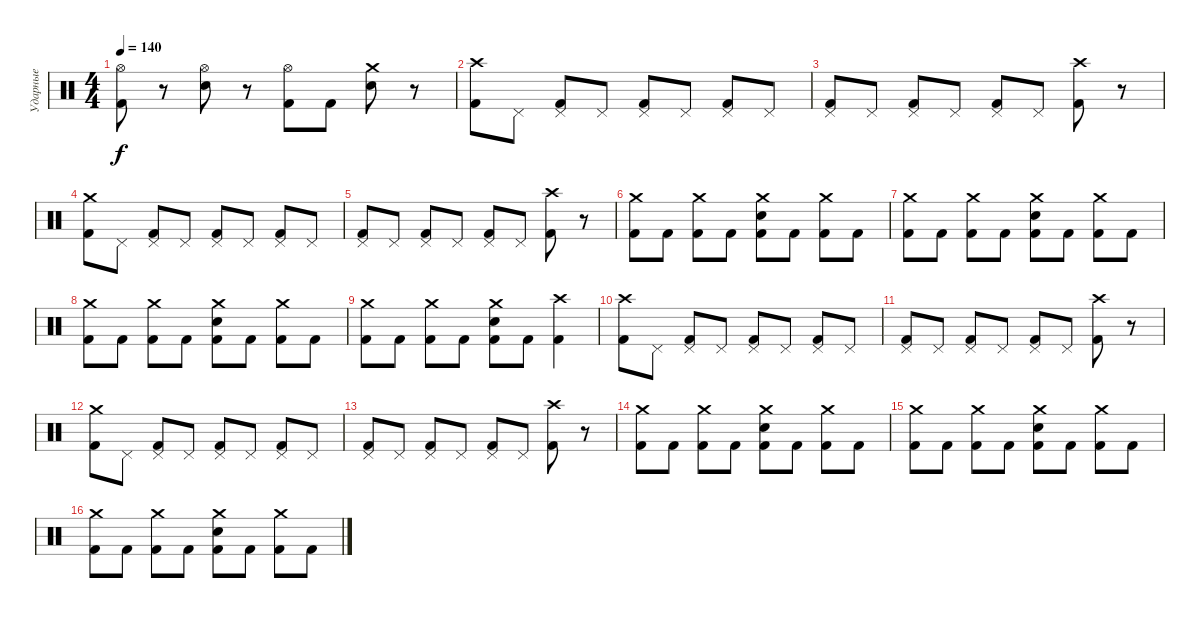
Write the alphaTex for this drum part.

\track ("Ударные" "Ударные") {instrument percussion}
\staff {score}
\articulation defaults
\ts (4 4)
\tempo 140
\clef neutral
\ks c
("Hi-Hat (open)" "Kick (hit) 2").8{dy f} r.8 ("Hi-Hat (open)" "Electric Snare (hit)").8 r.8 ("Hi-Hat (open)" "Kick (hit) 2").8 "Kick (hit) 2".8 ("Crash medium (hit)" "Electric Snare (hit)").8 r.8 |
("Crash high (hit)" "Kick (hit) 2").8 "Pedal Hi-Hat (hit)".8 ("Pedal Hi-Hat (hit)" "Kick (hit) 2").8 "Pedal Hi-Hat (hit)".8 ("Pedal Hi-Hat (hit)" "Kick (hit) 2").8 "Pedal Hi-Hat (hit)".8 ("Pedal Hi-Hat (hit)" "Kick (hit) 2").8 "Pedal Hi-Hat (hit)".8 |
("Pedal Hi-Hat (hit)" "Kick (hit) 2").8 "Pedal Hi-Hat (hit)".8 ("Pedal Hi-Hat (hit)" "Kick (hit) 2").8 "Pedal Hi-Hat (hit)".8 ("Pedal Hi-Hat (hit)" "Kick (hit) 2").8 "Pedal Hi-Hat (hit)".8 ("Crash high (hit)" "Kick (hit) 2").8 r.8 |
("Crash medium (hit)" "Kick (hit) 2").8 "Pedal Hi-Hat (hit)".8 ("Pedal Hi-Hat (hit)" "Kick (hit) 2").8 "Pedal Hi-Hat (hit)".8 ("Pedal Hi-Hat (hit)" "Kick (hit) 2").8 "Pedal Hi-Hat (hit)".8 ("Pedal Hi-Hat (hit)" "Kick (hit) 2").8 "Pedal Hi-Hat (hit)".8 |
("Pedal Hi-Hat (hit)" "Kick (hit) 2").8 "Pedal Hi-Hat (hit)".8 ("Pedal Hi-Hat (hit)" "Kick (hit) 2").8 "Pedal Hi-Hat (hit)".8 ("Pedal Hi-Hat (hit)" "Kick (hit) 2").8 "Pedal Hi-Hat (hit)".8 ("Crash high (hit)" "Kick (hit) 2").8 r.8 |
("Crash medium (hit)" "Kick (hit) 2").8 "Kick (hit) 2".8 ("Crash medium (hit)" "Kick (hit) 2").8 "Kick (hit) 2".8 ("Crash medium (hit)" "Electric Snare (hit)" "Kick (hit) 2").8 "Kick (hit) 2".8 ("Crash medium (hit)" "Kick (hit) 2").8 "Kick (hit) 2".8 |
("Crash medium (hit)" "Kick (hit) 2").8 "Kick (hit) 2".8 ("Crash medium (hit)" "Kick (hit) 2").8 "Kick (hit) 2".8 ("Crash medium (hit)" "Electric Snare (hit)" "Kick (hit) 2").8 "Kick (hit) 2".8 ("Crash medium (hit)" "Kick (hit) 2").8 "Kick (hit) 2".8 |
("Crash medium (hit)" "Kick (hit) 2").8 "Kick (hit) 2".8 ("Crash medium (hit)" "Kick (hit) 2").8 "Kick (hit) 2".8 ("Crash medium (hit)" "Electric Snare (hit)" "Kick (hit) 2").8 "Kick (hit) 2".8 ("Crash medium (hit)" "Kick (hit) 2").8 "Kick (hit) 2".8 |
("Crash medium (hit)" "Kick (hit) 2").8 "Kick (hit) 2".8 ("Crash medium (hit)" "Kick (hit) 2").8 "Kick (hit) 2".8 ("Crash medium (hit)" "Electric Snare (hit)" "Kick (hit) 2").8 "Kick (hit) 2".8 ("Crash high (hit)" "Kick (hit) 2").4 |
("Crash high (hit)" "Kick (hit) 2").8 "Pedal Hi-Hat (hit)".8 ("Pedal Hi-Hat (hit)" "Kick (hit) 2").8 "Pedal Hi-Hat (hit)".8 ("Pedal Hi-Hat (hit)" "Kick (hit) 2").8 "Pedal Hi-Hat (hit)".8 ("Pedal Hi-Hat (hit)" "Kick (hit) 2").8 "Pedal Hi-Hat (hit)".8 |
("Pedal Hi-Hat (hit)" "Kick (hit) 2").8 "Pedal Hi-Hat (hit)".8 ("Pedal Hi-Hat (hit)" "Kick (hit) 2").8 "Pedal Hi-Hat (hit)".8 ("Pedal Hi-Hat (hit)" "Kick (hit) 2").8 "Pedal Hi-Hat (hit)".8 ("Crash high (hit)" "Kick (hit) 2").8 r.8 |
("Crash medium (hit)" "Kick (hit) 2").8 "Pedal Hi-Hat (hit)".8 ("Pedal Hi-Hat (hit)" "Kick (hit) 2").8 "Pedal Hi-Hat (hit)".8 ("Pedal Hi-Hat (hit)" "Kick (hit) 2").8 "Pedal Hi-Hat (hit)".8 ("Pedal Hi-Hat (hit)" "Kick (hit) 2").8 "Pedal Hi-Hat (hit)".8 |
("Pedal Hi-Hat (hit)" "Kick (hit) 2").8 "Pedal Hi-Hat (hit)".8 ("Pedal Hi-Hat (hit)" "Kick (hit) 2").8 "Pedal Hi-Hat (hit)".8 ("Pedal Hi-Hat (hit)" "Kick (hit) 2").8 "Pedal Hi-Hat (hit)".8 ("Crash high (hit)" "Kick (hit) 2").8 r.8 |
("Crash medium (hit)" "Kick (hit) 2").8 "Kick (hit) 2".8 ("Crash medium (hit)" "Kick (hit) 2").8 "Kick (hit) 2".8 ("Crash medium (hit)" "Electric Snare (hit)" "Kick (hit) 2").8 "Kick (hit) 2".8 ("Crash medium (hit)" "Kick (hit) 2").8 "Kick (hit) 2".8 |
("Crash medium (hit)" "Kick (hit) 2").8 "Kick (hit) 2".8 ("Crash medium (hit)" "Kick (hit) 2").8 "Kick (hit) 2".8 ("Crash medium (hit)" "Electric Snare (hit)" "Kick (hit) 2").8 "Kick (hit) 2".8 ("Crash medium (hit)" "Kick (hit) 2").8 "Kick (hit) 2".8 |
("Crash medium (hit)" "Kick (hit) 2").8 "Kick (hit) 2".8 ("Crash medium (hit)" "Kick (hit) 2").8 "Kick (hit) 2".8 ("Crash medium (hit)" "Electric Snare (hit)" "Kick (hit) 2").8 "Kick (hit) 2".8 ("Crash medium (hit)" "Kick (hit) 2").8 "Kick (hit) 2".8
